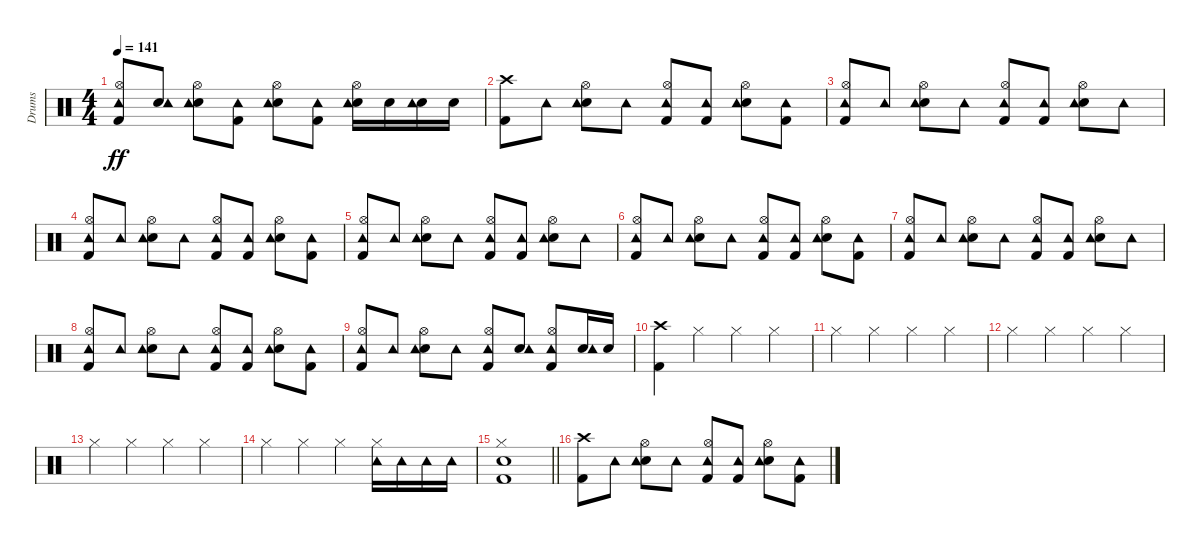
\track ("Drums" "Drums") {instrument percussion}
\staff {score}
\articulation defaults
\ts (4 4)
\tempo 141
\clef neutral
\ks c
("Kick (hit) 2" "Hi-Hat (open)" "Tambourine (hit)").8{dy ff} ("Snare (hit) 2" "Tambourine (hit)").8 ("Snare (hit) 2" "Hi-Hat (open)" "Tambourine (hit)").8 ("Kick (hit) 2" "Tambourine (hit)").8 ("Snare (hit) 2" "Hi-Hat (open)" "Tambourine (hit)").8 ("Kick (hit) 2" "Tambourine (hit)").8 ("Snare (hit) 2" "Hi-Hat (open)" "Tambourine (hit)").16 "Snare (hit) 2".16 ("Snare (hit) 2" "Tambourine (hit)").16 "Snare (hit) 2".16 |
("Kick (hit) 2" "Crash high (hit)").8 "Tambourine (hit)".8 ("Snare (hit) 2" "Hi-Hat (open)" "Tambourine (hit)").8 "Tambourine (hit)".8 ("Kick (hit) 2" "Hi-Hat (open)" "Tambourine (hit)").8 ("Kick (hit) 2" "Tambourine (hit)").8 ("Snare (hit) 2" "Hi-Hat (open)" "Tambourine (hit)").8 ("Kick (hit) 2" "Tambourine (hit)").8 |
("Kick (hit) 2" "Hi-Hat (open)" "Tambourine (hit)").8 "Tambourine (hit)".8 ("Snare (hit) 2" "Hi-Hat (open)" "Tambourine (hit)").8 "Tambourine (hit)".8 ("Kick (hit) 2" "Hi-Hat (open)" "Tambourine (hit)").8 ("Kick (hit) 2" "Tambourine (hit)").8 ("Snare (hit) 2" "Hi-Hat (open)" "Tambourine (hit)").8 "Tambourine (hit)".8 |
("Kick (hit) 2" "Hi-Hat (open)" "Tambourine (hit)").8 "Tambourine (hit)".8 ("Snare (hit) 2" "Hi-Hat (open)" "Tambourine (hit)").8 "Tambourine (hit)".8 ("Kick (hit) 2" "Hi-Hat (open)" "Tambourine (hit)").8 ("Kick (hit) 2" "Tambourine (hit)").8 ("Snare (hit) 2" "Hi-Hat (open)" "Tambourine (hit)").8 ("Kick (hit) 2" "Tambourine (hit)").8 |
("Kick (hit) 2" "Hi-Hat (open)" "Tambourine (hit)").8 "Tambourine (hit)".8 ("Snare (hit) 2" "Hi-Hat (open)" "Tambourine (hit)").8 "Tambourine (hit)".8 ("Kick (hit) 2" "Hi-Hat (open)" "Tambourine (hit)").8 ("Kick (hit) 2" "Tambourine (hit)").8 ("Snare (hit) 2" "Hi-Hat (open)" "Tambourine (hit)").8 "Tambourine (hit)".8 |
("Kick (hit) 2" "Hi-Hat (open)" "Tambourine (hit)").8 "Tambourine (hit)".8 ("Snare (hit) 2" "Hi-Hat (open)" "Tambourine (hit)").8 "Tambourine (hit)".8 ("Kick (hit) 2" "Hi-Hat (open)" "Tambourine (hit)").8 ("Kick (hit) 2" "Tambourine (hit)").8 ("Snare (hit) 2" "Hi-Hat (open)" "Tambourine (hit)").8 ("Kick (hit) 2" "Tambourine (hit)").8 |
("Kick (hit) 2" "Hi-Hat (open)" "Tambourine (hit)").8 "Tambourine (hit)".8 ("Snare (hit) 2" "Hi-Hat (open)" "Tambourine (hit)").8 "Tambourine (hit)".8 ("Kick (hit) 2" "Hi-Hat (open)" "Tambourine (hit)").8 ("Kick (hit) 2" "Tambourine (hit)").8 ("Snare (hit) 2" "Hi-Hat (open)" "Tambourine (hit)").8 "Tambourine (hit)".8 |
("Kick (hit) 2" "Hi-Hat (open)" "Tambourine (hit)").8 "Tambourine (hit)".8 ("Snare (hit) 2" "Hi-Hat (open)" "Tambourine (hit)").8 "Tambourine (hit)".8 ("Kick (hit) 2" "Hi-Hat (open)" "Tambourine (hit)").8 ("Kick (hit) 2" "Tambourine (hit)").8 ("Snare (hit) 2" "Hi-Hat (open)" "Tambourine (hit)").8 ("Kick (hit) 2" "Tambourine (hit)").8 |
("Kick (hit) 2" "Hi-Hat (open)" "Tambourine (hit)").8 "Tambourine (hit)".8 ("Snare (hit) 2" "Hi-Hat (open)" "Tambourine (hit)").8 "Tambourine (hit)".8 ("Kick (hit) 2" "Hi-Hat (open)" "Tambourine (hit)").8 ("Snare (hit) 2" "Tambourine (hit)").8 ("Kick (hit) 2" "Hi-Hat (open)" "Tambourine (hit)").8 ("Snare (hit) 2" "Tambourine (hit)").16 "Snare (hit) 2".16 |
("Kick (hit) 2" "Crash high (hit)").4 "Hi-Hat (closed)".4 "Hi-Hat (closed)".4 "Hi-Hat (closed)".4 |
"Hi-Hat (closed)".4 "Hi-Hat (closed)".4 "Hi-Hat (closed)".4 "Hi-Hat (closed)".4 |
"Hi-Hat (closed)".4 "Hi-Hat (closed)".4 "Hi-Hat (closed)".4 "Hi-Hat (closed)".4 |
"Hi-Hat (closed)".4 "Hi-Hat (closed)".4 "Hi-Hat (closed)".4 "Hi-Hat (closed)".4 |
"Hi-Hat (closed)".4 "Hi-Hat (closed)".4 "Hi-Hat (closed)".4 ("Hi-Hat (closed)" "Tambourine (hit)").16 "Tambourine (hit)".16 "Tambourine (hit)".16 "Tambourine (hit)".16 |
\barLineRight lightlight
("Kick (hit) 2" "Snare (hit) 2" "Hi-Hat (closed)").1 |
("Kick (hit) 2" "Crash high (hit)").8 "Tambourine (hit)".8 ("Snare (hit) 2" "Hi-Hat (open)" "Tambourine (hit)").8 "Tambourine (hit)".8 ("Kick (hit) 2" "Hi-Hat (open)" "Tambourine (hit)").8 ("Kick (hit) 2" "Tambourine (hit)").8 ("Snare (hit) 2" "Hi-Hat (open)" "Tambourine (hit)").8 ("Kick (hit) 2" "Tambourine (hit)").8
